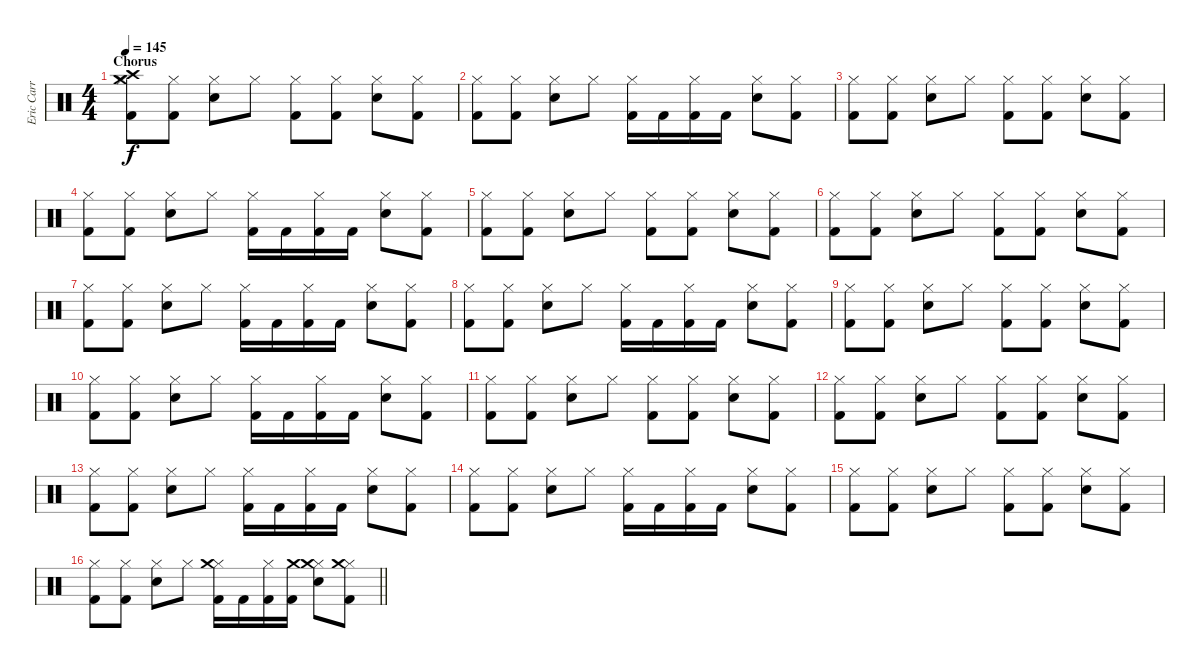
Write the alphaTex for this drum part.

\track ("Eric Carr" "Eric Carr") {instrument percussion}
\staff {score}
\articulation defaults
\ts (4 4)
\section ("" "Chorus")
\tempo 145
\clef neutral
\ks c
("Hi-Hat (closed)" "Crash medium (hit)" "Crash high (hit)" "Kick (hit) 2").8{dy f} ("Hi-Hat (closed)" "Kick (hit) 2").8 ("Hi-Hat (closed)" "Snare (hit) 2").8 "Hi-Hat (closed)".8 ("Hi-Hat (closed)" "Kick (hit) 2").8 ("Hi-Hat (closed)" "Kick (hit) 2").8 ("Hi-Hat (closed)" "Snare (hit) 2").8 ("Hi-Hat (closed)" "Kick (hit) 2").8 |
("Hi-Hat (closed)" "Kick (hit) 2").8 ("Hi-Hat (closed)" "Kick (hit) 2").8 ("Hi-Hat (closed)" "Snare (hit) 2").8 "Hi-Hat (closed)".8 ("Hi-Hat (closed)" "Kick (hit) 2").16 "Kick (hit) 2".16 ("Hi-Hat (closed)" "Kick (hit) 2").16 "Kick (hit) 2".16 ("Hi-Hat (closed)" "Snare (hit) 2").8 ("Hi-Hat (closed)" "Kick (hit) 2").8 |
("Hi-Hat (closed)" "Kick (hit) 2").8 ("Hi-Hat (closed)" "Kick (hit) 2").8 ("Hi-Hat (closed)" "Snare (hit) 2").8 "Hi-Hat (closed)".8 ("Hi-Hat (closed)" "Kick (hit) 2").8 ("Hi-Hat (closed)" "Kick (hit) 2").8 ("Hi-Hat (closed)" "Snare (hit) 2").8 ("Hi-Hat (closed)" "Kick (hit) 2").8 |
("Hi-Hat (closed)" "Kick (hit) 2").8 ("Hi-Hat (closed)" "Kick (hit) 2").8 ("Hi-Hat (closed)" "Snare (hit) 2").8 "Hi-Hat (closed)".8 ("Hi-Hat (closed)" "Kick (hit) 2").16 "Kick (hit) 2".16 ("Hi-Hat (closed)" "Kick (hit) 2").16 "Kick (hit) 2".16 ("Hi-Hat (closed)" "Snare (hit) 2").8 ("Hi-Hat (closed)" "Kick (hit) 2").8 |
("Hi-Hat (closed)" "Kick (hit) 2").8 ("Hi-Hat (closed)" "Kick (hit) 2").8 ("Hi-Hat (closed)" "Snare (hit) 2").8 "Hi-Hat (closed)".8 ("Hi-Hat (closed)" "Kick (hit) 2").8 ("Hi-Hat (closed)" "Kick (hit) 2").8 ("Hi-Hat (closed)" "Snare (hit) 2").8 ("Hi-Hat (closed)" "Kick (hit) 2").8 |
("Hi-Hat (closed)" "Kick (hit) 2").8 ("Hi-Hat (closed)" "Kick (hit) 2").8 ("Hi-Hat (closed)" "Snare (hit) 2").8 "Hi-Hat (closed)".8 ("Hi-Hat (closed)" "Kick (hit) 2").8 ("Hi-Hat (closed)" "Kick (hit) 2").8 ("Hi-Hat (closed)" "Snare (hit) 2").8 ("Hi-Hat (closed)" "Kick (hit) 2").8 |
("Hi-Hat (closed)" "Kick (hit) 2").8 ("Hi-Hat (closed)" "Kick (hit) 2").8 ("Hi-Hat (closed)" "Snare (hit) 2").8 "Hi-Hat (closed)".8 ("Hi-Hat (closed)" "Kick (hit) 2").16 "Kick (hit) 2".16 ("Hi-Hat (closed)" "Kick (hit) 2").16 "Kick (hit) 2".16 ("Hi-Hat (closed)" "Snare (hit) 2").8 ("Hi-Hat (closed)" "Kick (hit) 2").8 |
("Hi-Hat (closed)" "Kick (hit) 2").8 ("Hi-Hat (closed)" "Kick (hit) 2").8 ("Hi-Hat (closed)" "Snare (hit) 2").8 "Hi-Hat (closed)".8 ("Hi-Hat (closed)" "Kick (hit) 2").16 "Kick (hit) 2".16 ("Hi-Hat (closed)" "Kick (hit) 2").16 "Kick (hit) 2".16 ("Hi-Hat (closed)" "Snare (hit) 2").8 ("Hi-Hat (closed)" "Kick (hit) 2").8 |
("Hi-Hat (closed)" "Kick (hit) 2").8 ("Hi-Hat (closed)" "Kick (hit) 2").8 ("Hi-Hat (closed)" "Snare (hit) 2").8 "Hi-Hat (closed)".8 ("Hi-Hat (closed)" "Kick (hit) 2").8 ("Hi-Hat (closed)" "Kick (hit) 2").8 ("Hi-Hat (closed)" "Snare (hit) 2").8 ("Hi-Hat (closed)" "Kick (hit) 2").8 |
("Hi-Hat (closed)" "Kick (hit) 2").8 ("Hi-Hat (closed)" "Kick (hit) 2").8 ("Hi-Hat (closed)" "Snare (hit) 2").8 "Hi-Hat (closed)".8 ("Hi-Hat (closed)" "Kick (hit) 2").16 "Kick (hit) 2".16 ("Hi-Hat (closed)" "Kick (hit) 2").16 "Kick (hit) 2".16 ("Hi-Hat (closed)" "Snare (hit) 2").8 ("Hi-Hat (closed)" "Kick (hit) 2").8 |
("Hi-Hat (closed)" "Kick (hit) 2").8 ("Hi-Hat (closed)" "Kick (hit) 2").8 ("Hi-Hat (closed)" "Snare (hit) 2").8 "Hi-Hat (closed)".8 ("Hi-Hat (closed)" "Kick (hit) 2").8 ("Hi-Hat (closed)" "Kick (hit) 2").8 ("Hi-Hat (closed)" "Snare (hit) 2").8 ("Hi-Hat (closed)" "Kick (hit) 2").8 |
("Hi-Hat (closed)" "Kick (hit) 2").8 ("Hi-Hat (closed)" "Kick (hit) 2").8 ("Hi-Hat (closed)" "Snare (hit) 2").8 "Hi-Hat (closed)".8 ("Hi-Hat (closed)" "Kick (hit) 2").8 ("Hi-Hat (closed)" "Kick (hit) 2").8 ("Hi-Hat (closed)" "Snare (hit) 2").8 ("Hi-Hat (closed)" "Kick (hit) 2").8 |
("Hi-Hat (closed)" "Kick (hit) 2").8 ("Hi-Hat (closed)" "Kick (hit) 2").8 ("Hi-Hat (closed)" "Snare (hit) 2").8 "Hi-Hat (closed)".8 ("Hi-Hat (closed)" "Kick (hit) 2").16 "Kick (hit) 2".16 ("Hi-Hat (closed)" "Kick (hit) 2").16 "Kick (hit) 2".16 ("Hi-Hat (closed)" "Snare (hit) 2").8 ("Hi-Hat (closed)" "Kick (hit) 2").8 |
("Hi-Hat (closed)" "Kick (hit) 2").8 ("Hi-Hat (closed)" "Kick (hit) 2").8 ("Hi-Hat (closed)" "Snare (hit) 2").8 "Hi-Hat (closed)".8 ("Hi-Hat (closed)" "Kick (hit) 2").16 "Kick (hit) 2".16 ("Hi-Hat (closed)" "Kick (hit) 2").16 "Kick (hit) 2".16 ("Hi-Hat (closed)" "Snare (hit) 2").8 ("Hi-Hat (closed)" "Kick (hit) 2").8 |
("Hi-Hat (closed)" "Kick (hit) 2").8 ("Hi-Hat (closed)" "Kick (hit) 2").8 ("Hi-Hat (closed)" "Snare (hit) 2").8 "Hi-Hat (closed)".8 ("Hi-Hat (closed)" "Kick (hit) 2").8 ("Hi-Hat (closed)" "Kick (hit) 2").8 ("Hi-Hat (closed)" "Snare (hit) 2").8 ("Hi-Hat (closed)" "Kick (hit) 2").8 |
\barLineRight lightlight
("Hi-Hat (closed)" "Kick (hit) 2").8 ("Hi-Hat (closed)" "Kick (hit) 2").8 ("Hi-Hat (closed)" "Snare (hit) 2").8 "Hi-Hat (closed)".8 ("Hi-Hat (closed)" "Crash medium (hit)" "Kick (hit) 2").16 "Kick (hit) 2".16 ("Hi-Hat (closed)" "Kick (hit) 2").16 ("Crash medium (hit)" "Kick (hit) 2").16 ("Hi-Hat (closed)" "Snare (hit) 2" "Crash medium (hit)").8 ("Hi-Hat (closed)" "Crash medium (hit)" "Kick (hit) 2").8
